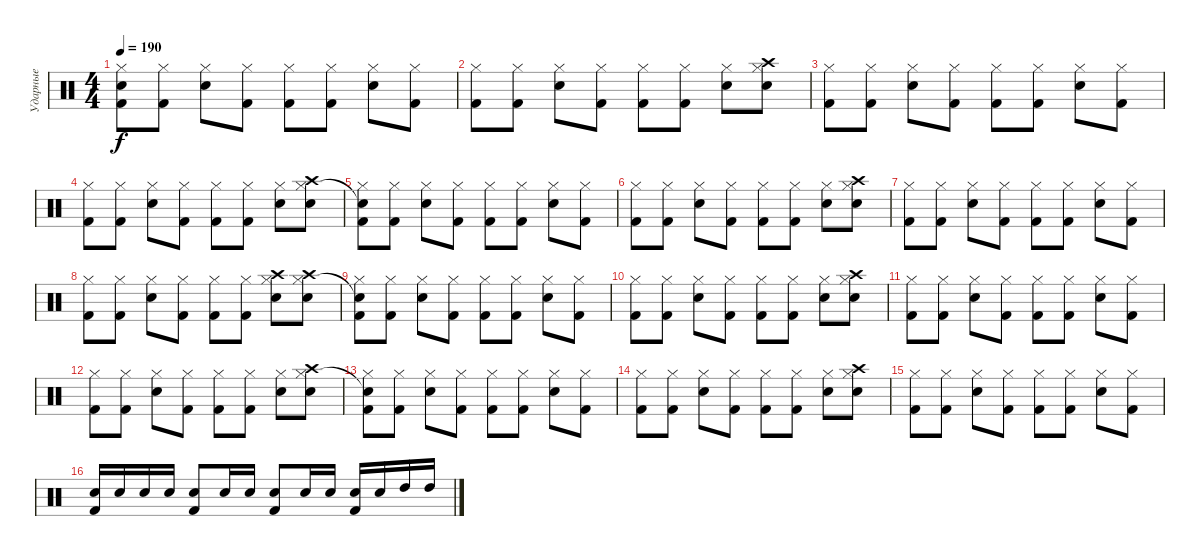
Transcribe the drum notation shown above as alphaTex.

\track ("Ударные" "Ударные") {instrument percussion}
\staff {score}
\articulation defaults
\ts (4 4)
\tempo 190
\clef neutral
\ks c
("Snare (hit)"{t} "Hi-Hat (closed)" "Kick (hit) 2").8{dy f} ("Hi-Hat (closed)" "Kick (hit) 2").8 ("Hi-Hat (closed)" "Electric Snare (hit)").8 ("Hi-Hat (closed)" "Kick (hit) 2").8 ("Hi-Hat (closed)" "Kick (hit) 2").8 ("Hi-Hat (closed)" "Kick (hit) 2").8 ("Hi-Hat (closed)" "Electric Snare (hit)").8 ("Hi-Hat (closed)" "Kick (hit) 2").8 |
("Hi-Hat (closed)" "Kick (hit) 2").8 ("Hi-Hat (closed)" "Kick (hit) 2").8 ("Hi-Hat (closed)" "Electric Snare (hit)").8 ("Hi-Hat (closed)" "Kick (hit) 2").8 ("Hi-Hat (closed)" "Kick (hit) 2").8 ("Hi-Hat (closed)" "Kick (hit) 2").8 ("Hi-Hat (closed)" "Electric Snare (hit)").8 ("Hi-Hat (closed)" "Crash high (hit)" "Electric Snare (hit)").8 |
("Hi-Hat (closed)" "Kick (hit) 2").8 ("Hi-Hat (closed)" "Kick (hit) 2").8 ("Hi-Hat (closed)" "Electric Snare (hit)").8 ("Hi-Hat (closed)" "Kick (hit) 2").8 ("Hi-Hat (closed)" "Kick (hit) 2").8 ("Hi-Hat (closed)" "Kick (hit) 2").8 ("Hi-Hat (closed)" "Electric Snare (hit)").8 ("Hi-Hat (closed)" "Kick (hit) 2").8 |
("Hi-Hat (closed)" "Kick (hit) 2").8 ("Hi-Hat (closed)" "Kick (hit) 2").8 ("Hi-Hat (closed)" "Electric Snare (hit)").8 ("Hi-Hat (closed)" "Kick (hit) 2").8 ("Hi-Hat (closed)" "Kick (hit) 2").8 ("Hi-Hat (closed)" "Kick (hit) 2").8 ("Hi-Hat (closed)" "Electric Snare (hit)").8 ("Hi-Hat (closed)" "Crash high (hit)" "Electric Snare (hit)").8 |
("Snare (hit)"{t} "Hi-Hat (closed)" "Kick (hit) 2").8 ("Hi-Hat (closed)" "Kick (hit) 2").8 ("Hi-Hat (closed)" "Electric Snare (hit)").8 ("Hi-Hat (closed)" "Kick (hit) 2").8 ("Hi-Hat (closed)" "Kick (hit) 2").8 ("Hi-Hat (closed)" "Kick (hit) 2").8 ("Hi-Hat (closed)" "Electric Snare (hit)").8 ("Hi-Hat (closed)" "Kick (hit) 2").8 |
("Hi-Hat (closed)" "Kick (hit) 2").8 ("Hi-Hat (closed)" "Kick (hit) 2").8 ("Hi-Hat (closed)" "Electric Snare (hit)").8 ("Hi-Hat (closed)" "Kick (hit) 2").8 ("Hi-Hat (closed)" "Kick (hit) 2").8 ("Hi-Hat (closed)" "Kick (hit) 2").8 ("Hi-Hat (closed)" "Electric Snare (hit)").8 ("Hi-Hat (closed)" "Crash high (hit)" "Electric Snare (hit)").8 |
("Hi-Hat (closed)" "Kick (hit) 2").8 ("Hi-Hat (closed)" "Kick (hit) 2").8 ("Hi-Hat (closed)" "Electric Snare (hit)").8 ("Hi-Hat (closed)" "Kick (hit) 2").8 ("Hi-Hat (closed)" "Kick (hit) 2").8 ("Hi-Hat (closed)" "Kick (hit) 2").8 ("Hi-Hat (closed)" "Electric Snare (hit)").8 ("Hi-Hat (closed)" "Kick (hit) 2").8 |
("Hi-Hat (closed)" "Kick (hit) 2").8 ("Hi-Hat (closed)" "Kick (hit) 2").8 ("Hi-Hat (closed)" "Electric Snare (hit)").8 ("Hi-Hat (closed)" "Kick (hit) 2").8 ("Hi-Hat (closed)" "Kick (hit) 2").8 ("Hi-Hat (closed)" "Kick (hit) 2").8 ("Hi-Hat (closed)" "Crash high (hit)" "Electric Snare (hit)").8 ("Hi-Hat (closed)" "Crash high (hit)" "Electric Snare (hit)").8 |
("Snare (hit)"{t} "Hi-Hat (closed)" "Kick (hit) 2").8 ("Hi-Hat (closed)" "Kick (hit) 2").8 ("Hi-Hat (closed)" "Electric Snare (hit)").8 ("Hi-Hat (closed)" "Kick (hit) 2").8 ("Hi-Hat (closed)" "Kick (hit) 2").8 ("Hi-Hat (closed)" "Kick (hit) 2").8 ("Hi-Hat (closed)" "Electric Snare (hit)").8 ("Hi-Hat (closed)" "Kick (hit) 2").8 |
("Hi-Hat (closed)" "Kick (hit) 2").8 ("Hi-Hat (closed)" "Kick (hit) 2").8 ("Hi-Hat (closed)" "Electric Snare (hit)").8 ("Hi-Hat (closed)" "Kick (hit) 2").8 ("Hi-Hat (closed)" "Kick (hit) 2").8 ("Hi-Hat (closed)" "Kick (hit) 2").8 ("Hi-Hat (closed)" "Electric Snare (hit)").8 ("Hi-Hat (closed)" "Crash high (hit)" "Electric Snare (hit)").8 |
("Hi-Hat (closed)" "Kick (hit) 2").8 ("Hi-Hat (closed)" "Kick (hit) 2").8 ("Hi-Hat (closed)" "Electric Snare (hit)").8 ("Hi-Hat (closed)" "Kick (hit) 2").8 ("Hi-Hat (closed)" "Kick (hit) 2").8 ("Hi-Hat (closed)" "Kick (hit) 2").8 ("Hi-Hat (closed)" "Electric Snare (hit)").8 ("Hi-Hat (closed)" "Kick (hit) 2").8 |
("Hi-Hat (closed)" "Kick (hit) 2").8 ("Hi-Hat (closed)" "Kick (hit) 2").8 ("Hi-Hat (closed)" "Electric Snare (hit)").8 ("Hi-Hat (closed)" "Kick (hit) 2").8 ("Hi-Hat (closed)" "Kick (hit) 2").8 ("Hi-Hat (closed)" "Kick (hit) 2").8 ("Hi-Hat (closed)" "Electric Snare (hit)").8 ("Hi-Hat (closed)" "Crash high (hit)" "Electric Snare (hit)").8 |
("Snare (hit)"{t} "Hi-Hat (closed)" "Kick (hit) 2").8 ("Hi-Hat (closed)" "Kick (hit) 2").8 ("Hi-Hat (closed)" "Electric Snare (hit)").8 ("Hi-Hat (closed)" "Kick (hit) 2").8 ("Hi-Hat (closed)" "Kick (hit) 2").8 ("Hi-Hat (closed)" "Kick (hit) 2").8 ("Hi-Hat (closed)" "Electric Snare (hit)").8 ("Hi-Hat (closed)" "Kick (hit) 2").8 |
("Hi-Hat (closed)" "Kick (hit) 2").8 ("Hi-Hat (closed)" "Kick (hit) 2").8 ("Hi-Hat (closed)" "Electric Snare (hit)").8 ("Hi-Hat (closed)" "Kick (hit) 2").8 ("Hi-Hat (closed)" "Kick (hit) 2").8 ("Hi-Hat (closed)" "Kick (hit) 2").8 ("Hi-Hat (closed)" "Electric Snare (hit)").8 ("Hi-Hat (closed)" "Crash high (hit)" "Electric Snare (hit)").8 |
("Hi-Hat (closed)" "Kick (hit) 2").8 ("Hi-Hat (closed)" "Kick (hit) 2").8 ("Hi-Hat (closed)" "Electric Snare (hit)").8 ("Hi-Hat (closed)" "Kick (hit) 2").8 ("Hi-Hat (closed)" "Kick (hit) 2").8 ("Hi-Hat (closed)" "Kick (hit) 2").8 ("Hi-Hat (closed)" "Electric Snare (hit)").8 ("Hi-Hat (closed)" "Kick (hit) 2").8 |
("Electric Snare (hit)" "Kick (hit) 2").16 "Electric Snare (hit)".16 "Electric Snare (hit)".16 "Electric Snare (hit)".16 ("Electric Snare (hit)" "Kick (hit) 2").8 "Electric Snare (hit)".16 "Electric Snare (hit)".16 ("Electric Snare (hit)" "Kick (hit) 2").8 "Electric Snare (hit)".16 "Electric Snare (hit)".16 ("Electric Snare (hit)" "Kick (hit) 2").16 "Electric Snare (hit)".16 "High Tom (hit)".16 "High Tom (hit)".16
